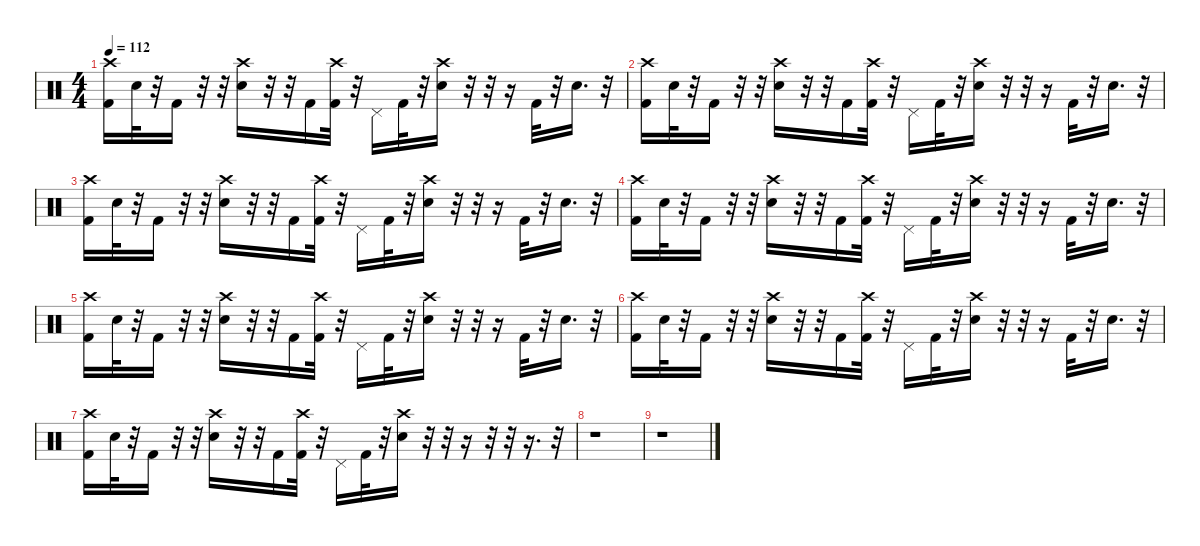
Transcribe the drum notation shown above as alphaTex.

\hideDynamics
\bracketExtendMode nobrackets
\singleTrackTrackNamePolicy hidden
\multiTrackTrackNamePolicy hidden
\firstSystemTrackNameMode fullname
\firstSystemTrackNameOrientation horizontal
\otherSystemsTrackNameOrientation horizontal
\track ("Drumkit" "Drums") {instrument percussion}
\staff {score}
\articulation defaults
\ts (4 4)
\tempo 112
\clef neutral
\ks c
("Crash high (hit)" "Kick (hit) 2").16{dy ff beam Down} "Snare (hit) 2".32{beam Down} r.32{beam Down} "Kick (hit) 2".16{beam Down} r.32{beam Down} r.32{beam Down} ("Snare (hit) 2" "Crash high (hit)").16{beam Down} r.32{beam Down} r.32{beam Down} "Kick (hit) 2".16{beam Down} ("Kick (hit) 2" "Crash high (hit)").32{beam Down} r.32{beam Down} "Pedal Hi-Hat (hit)".16{beam Down} "Kick (hit) 2".32{beam Down} r.32{beam Down} ("Snare (hit) 2" "Crash high (hit)").16{beam Down} r.32{beam Down} r.32{beam Down} r.16{beam Down} "Kick (hit) 2".32{beam Up} r.32{beam Up} "Snare (hit) 2".16{d beam Up} r.32{beam Up} |
("Crash high (hit)" "Kick (hit) 2").16{beam Down} "Snare (hit) 2".32{beam Down} r.32{beam Down} "Kick (hit) 2".16{beam Down} r.32{beam Down} r.32{beam Down} ("Snare (hit) 2" "Crash high (hit)").16{beam Down} r.32{beam Down} r.32{beam Down} "Kick (hit) 2".16{beam Down} ("Kick (hit) 2" "Crash high (hit)").32{beam Down} r.32{beam Down} "Pedal Hi-Hat (hit)".16{beam Down} "Kick (hit) 2".32{beam Down} r.32{beam Down} ("Snare (hit) 2" "Crash high (hit)").16{beam Down} r.32{beam Down} r.32{beam Down} r.16{beam Down} "Kick (hit) 2".32{beam Up} r.32{beam Up} "Snare (hit) 2".16{d beam Up} r.32{beam Up} |
("Crash high (hit)" "Kick (hit) 2").16{beam Down} "Snare (hit) 2".32{beam Down} r.32{beam Down} "Kick (hit) 2".16{beam Down} r.32{beam Down} r.32{beam Down} ("Snare (hit) 2" "Crash high (hit)").16{beam Down} r.32{beam Down} r.32{beam Down} "Kick (hit) 2".16{beam Down} ("Kick (hit) 2" "Crash high (hit)").32{beam Down} r.32{beam Down} "Pedal Hi-Hat (hit)".16{beam Down} "Kick (hit) 2".32{beam Down} r.32{beam Down} ("Snare (hit) 2" "Crash high (hit)").16{beam Down} r.32{beam Down} r.32{beam Down} r.16{beam Down} "Kick (hit) 2".32{beam Up} r.32{beam Up} "Snare (hit) 2".16{d beam Up} r.32{beam Up} |
("Crash high (hit)" "Kick (hit) 2").16{beam Down} "Snare (hit) 2".32{beam Down} r.32{beam Down} "Kick (hit) 2".16{beam Down} r.32{beam Down} r.32{beam Down} ("Snare (hit) 2" "Crash high (hit)").16{beam Down} r.32{beam Down} r.32{beam Down} "Kick (hit) 2".16{beam Down} ("Kick (hit) 2" "Crash high (hit)").32{beam Down} r.32{beam Down} "Pedal Hi-Hat (hit)".16{beam Down} "Kick (hit) 2".32{beam Down} r.32{beam Down} ("Snare (hit) 2" "Crash high (hit)").16{beam Down} r.32{beam Down} r.32{beam Down} r.16{beam Down} "Kick (hit) 2".32{beam Up} r.32{beam Up} "Snare (hit) 2".16{d beam Up} r.32{beam Up} |
("Crash high (hit)" "Kick (hit) 2").16{beam Down} "Snare (hit) 2".32{beam Down} r.32{beam Down} "Kick (hit) 2".16{beam Down} r.32{beam Down} r.32{beam Down} ("Snare (hit) 2" "Crash high (hit)").16{beam Down} r.32{beam Down} r.32{beam Down} "Kick (hit) 2".16{beam Down} ("Kick (hit) 2" "Crash high (hit)").32{beam Down} r.32{beam Down} "Pedal Hi-Hat (hit)".16{beam Down} "Kick (hit) 2".32{beam Down} r.32{beam Down} ("Snare (hit) 2" "Crash high (hit)").16{beam Down} r.32{beam Down} r.32{beam Down} r.16{beam Down} "Kick (hit) 2".32{beam Up} r.32{beam Up} "Snare (hit) 2".16{d beam Up} r.32{beam Up} |
("Crash high (hit)" "Kick (hit) 2").16{beam Down} "Snare (hit) 2".32{beam Down} r.32{beam Down} "Kick (hit) 2".16{beam Down} r.32{beam Down} r.32{beam Down} ("Snare (hit) 2" "Crash high (hit)").16{beam Down} r.32{beam Down} r.32{beam Down} "Kick (hit) 2".16{beam Down} ("Kick (hit) 2" "Crash high (hit)").32{beam Down} r.32{beam Down} "Pedal Hi-Hat (hit)".16{beam Down} "Kick (hit) 2".32{beam Down} r.32{beam Down} ("Snare (hit) 2" "Crash high (hit)").16{beam Down} r.32{beam Down} r.32{beam Down} r.16{beam Down} "Kick (hit) 2".32{beam Up} r.32{beam Up} "Snare (hit) 2".16{d beam Up} r.32{beam Up} |
("Crash high (hit)" "Kick (hit) 2").16{beam Down} "Snare (hit) 2".32{beam Down} r.32{beam Down} "Kick (hit) 2".16{beam Down} r.32{beam Down} r.32{beam Down} ("Snare (hit) 2" "Crash high (hit)").16{beam Down} r.32{beam Down} r.32{beam Down} "Kick (hit) 2".16{beam Down} ("Kick (hit) 2" "Crash high (hit)").32{beam Down} r.32{beam Down} "Pedal Hi-Hat (hit)".16{beam Down} "Kick (hit) 2".32{beam Down} r.32{beam Down} ("Snare (hit) 2" "Crash high (hit)").16{beam Down} r.32{beam Down} r.32{beam Down} r.16{beam Down} r.32{beam Down} r.32{beam Down} r.16{d beam Down} r.32{beam Down} |
r.1{beam Down} |
r.1{beam Down}
